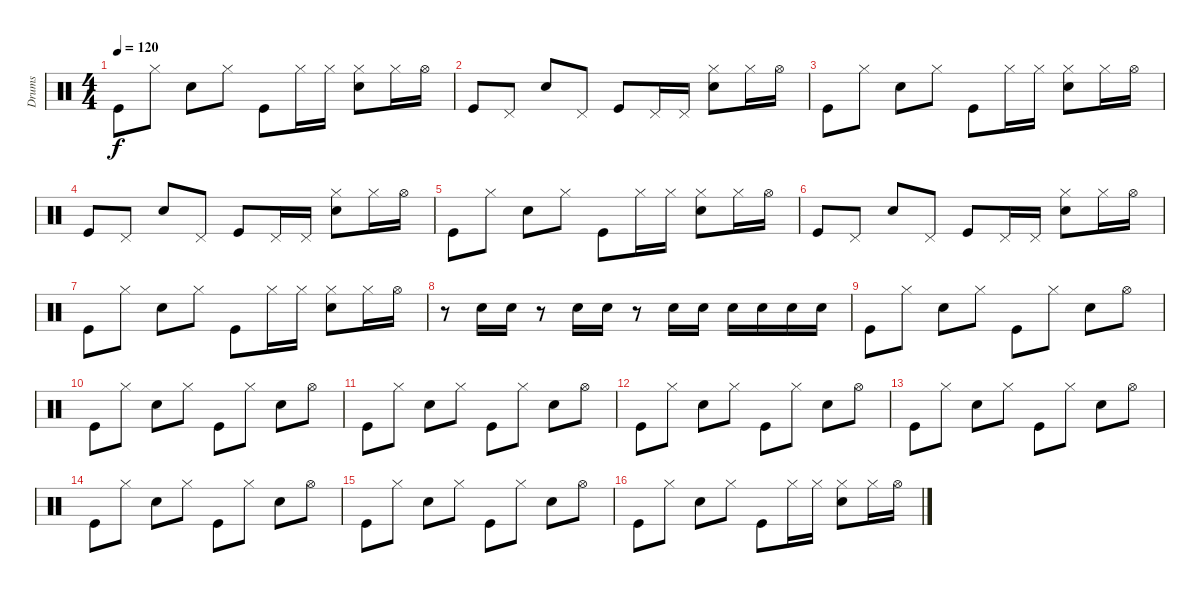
\track ("Drums" "Drums") {instrument percussion}
\staff {score}
\articulation defaults
\ts (4 4)
\tempo 120
\clef neutral
\ks c "Kick (hit)".8{dy f} "Hi-Hat (closed)".8 "Snare (hit) 2".8 "Hi-Hat (closed)".8 "Kick (hit)".8 "Hi-Hat (closed)".16 "Hi-Hat (closed)".16
("Hi-Hat (closed)" "Snare (hit) 2").8 "Hi-Hat (closed)".16 "Hi-Hat (open)".16 |
"Kick (hit)".8 "Pedal Hi-Hat (hit)".8 "Snare (hit) 2".8 "Pedal Hi-Hat (hit)".8 "Kick (hit)".8 "Pedal Hi-Hat (hit)".16 "Pedal Hi-Hat (hit)".16 ("Hi-Hat (closed)" "Snare (hit) 2").8 "Hi-Hat (closed)".16 "Hi-Hat (open)".16 |
"Kick (hit)".8 "Hi-Hat (closed)".8 "Snare (hit) 2".8 "Hi-Hat (closed)".8 "Kick (hit)".8 "Hi-Hat (closed)".16 "Hi-Hat (closed)".16 ("Hi-Hat (closed)" "Snare (hit) 2").8 "Hi-Hat (closed)".16 "Hi-Hat (open)".16 |
"Kick (hit)".8 "Pedal Hi-Hat (hit)".8 "Snare (hit) 2".8 "Pedal Hi-Hat (hit)".8 "Kick (hit)".8 "Pedal Hi-Hat (hit)".16 "Pedal Hi-Hat (hit)".16 ("Hi-Hat (closed)" "Snare (hit) 2").8 "Hi-Hat (closed)".16 "Hi-Hat (open)".16 |
"Kick (hit)".8 "Hi-Hat (closed)".8 "Snare (hit) 2".8 "Hi-Hat (closed)".8 "Kick (hit)".8 "Hi-Hat (closed)".16 "Hi-Hat (closed)".16 ("Hi-Hat (closed)" "Snare (hit) 2").8 "Hi-Hat (closed)".16 "Hi-Hat (open)".16 |
"Kick (hit)".8 "Pedal Hi-Hat (hit)".8 "Snare (hit) 2".8 "Pedal Hi-Hat (hit)".8 "Kick (hit)".8 "Pedal Hi-Hat (hit)".16 "Pedal Hi-Hat (hit)".16 ("Hi-Hat (closed)" "Snare (hit) 2").8 "Hi-Hat (closed)".16 "Hi-Hat (open)".16 |
"Kick (hit)".8 "Hi-Hat (closed)".8 "Snare (hit) 2".8 "Hi-Hat (closed)".8 "Kick (hit)".8 "Hi-Hat (closed)".16 "Hi-Hat (closed)".16 ("Hi-Hat (closed)" "Snare (hit) 2").8 "Hi-Hat (closed)".16 "Hi-Hat (open)".16 |
r.8 "Snare (hit) 2".16 "Snare (hit) 2".16 r.8 "Snare (hit) 2".16 "Snare (hit) 2".16 r.8 "Snare (hit) 2".16 "Snare (hit) 2".16 "Snare (hit) 2".16 "Snare (hit) 2".16 "Snare (hit) 2".16 "Snare (hit) 2".16 |
"Kick (hit)".8 "Hi-Hat (closed)".8 "Snare (hit) 2".8 "Hi-Hat (closed)".8 "Kick (hit)".8 "Hi-Hat (closed)".8 "Snare (hit) 2".8 "Hi-Hat (open)".8 |
"Kick (hit)".8 "Hi-Hat (closed)".8 "Snare (hit) 2".8 "Hi-Hat (closed)".8 "Kick (hit)".8 "Hi-Hat (closed)".8 "Snare (hit) 2".8 "Hi-Hat (open)".8 |
"Kick (hit)".8 "Hi-Hat (closed)".8 "Snare (hit) 2".8 "Hi-Hat (closed)".8 "Kick (hit)".8 "Hi-Hat (closed)".8 "Snare (hit) 2".8 "Hi-Hat (open)".8 |
"Kick (hit)".8 "Hi-Hat (closed)".8 "Snare (hit) 2".8 "Hi-Hat (closed)".8 "Kick (hit)".8 "Hi-Hat (closed)".8 "Snare (hit) 2".8 "Hi-Hat (open)".8 |
"Kick (hit)".8 "Hi-Hat (closed)".8 "Snare (hit) 2".8 "Hi-Hat (closed)".8 "Kick (hit)".8 "Hi-Hat (closed)".8 "Snare (hit) 2".8 "Hi-Hat (open)".8 |
"Kick (hit)".8 "Hi-Hat (closed)".8 "Snare (hit) 2".8 "Hi-Hat (closed)".8 "Kick (hit)".8 "Hi-Hat (closed)".8 "Snare (hit) 2".8 "Hi-Hat (open)".8 |
"Kick (hit)".8 "Hi-Hat (closed)".8 "Snare (hit) 2".8 "Hi-Hat (closed)".8 "Kick (hit)".8 "Hi-Hat (closed)".8 "Snare (hit) 2".8 "Hi-Hat (open)".8 |
"Kick (hit)".8 "Hi-Hat (closed)".8 "Snare (hit) 2".8 "Hi-Hat (closed)".8 "Kick (hit)".8 "Hi-Hat (closed)".16 "Hi-Hat (closed)".16 ("Hi-Hat (closed)" "Snare (hit) 2").8 "Hi-Hat (closed)".16 "Hi-Hat (open)".16
